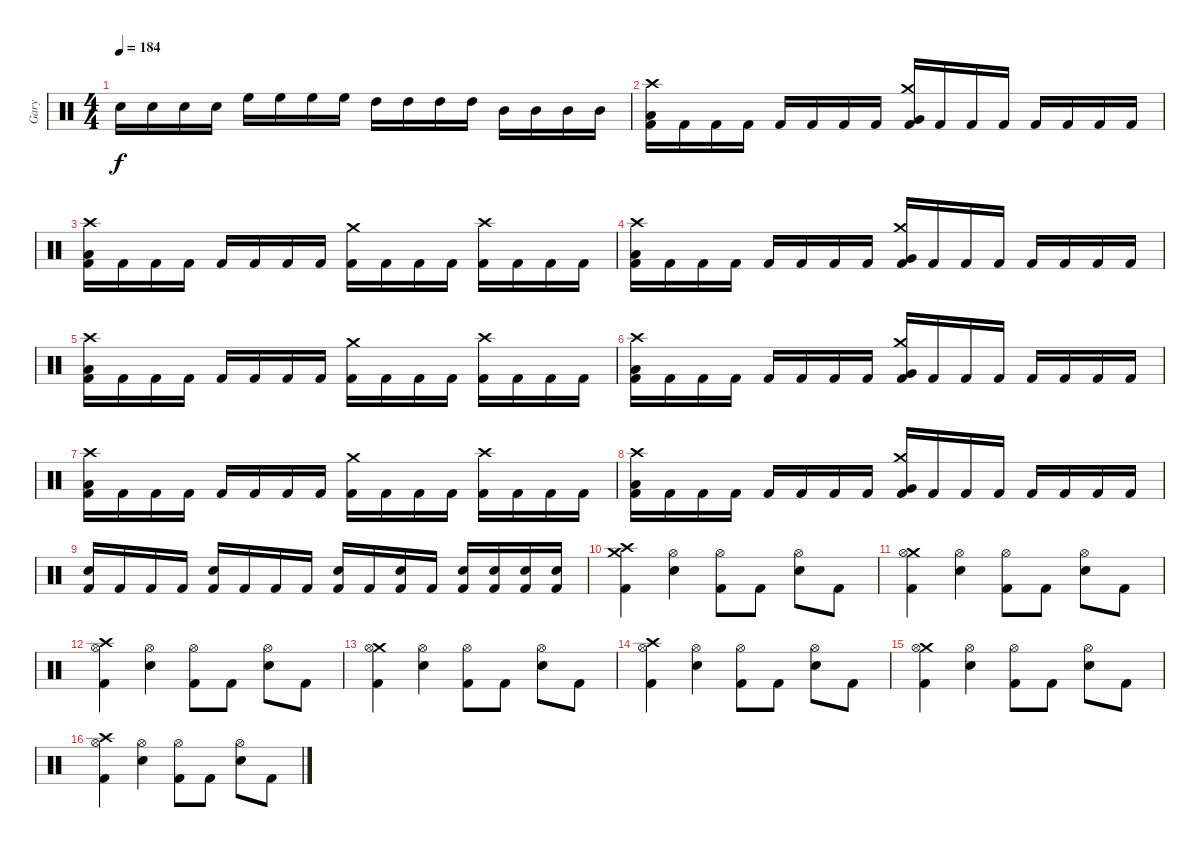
\track ("Gary" "Gary") {instrument percussion}
\staff {score}
\articulation defaults
\ts (4 4)
\tempo 184
\clef neutral
\ks c "Electric Snare (hit)".16{dy f} "Electric Snare (hit)".16 "Electric Snare (hit)".16 "Electric Snare (hit)".16 "High Floor Tom (hit)".16 "High Floor Tom (hit)".16 "High Floor Tom (hit)".16 "High Floor Tom (hit)".16 "High Tom (hit)".16 "High Tom (hit)".16 "High Tom (hit)".16 "High Tom (hit)".16 "Mid Tom (hit)".16 "Mid Tom (hit)".16 "Mid Tom (hit)".16 "Mid Tom (hit)".16
|
("Crash high (hit)" "Low Floor Tom (hit)" "Kick (hit) 2").16 "Kick (hit) 2".16 "Kick (hit) 2".16 "Kick (hit) 2".16 "Kick (hit) 2".16 "Kick (hit) 2".16 "Kick (hit) 2".16 "Kick (hit) 2".16 ("Crash medium (hit)" "Very Low Tom (hit)" "Kick (hit) 2").16 "Kick (hit) 2".16 "Kick (hit) 2".16 "Kick (hit) 2".16 "Kick (hit) 2".16 "Kick (hit) 2".16 "Kick (hit) 2".16 "Kick (hit) 2".16 |
("Crash high (hit)" "Low Floor Tom (hit)" "Kick (hit) 2").16 "Kick (hit) 2".16 "Kick (hit) 2".16 "Kick (hit) 2".16 "Kick (hit) 2".16 "Kick (hit) 2".16 "Kick (hit) 2".16 "Kick (hit) 2".16 ("Crash medium (hit)" "Kick (hit) 2").16 "Kick (hit) 2".16 "Kick (hit) 2".16 "Kick (hit) 2".16 ("Crash high (hit)" "Kick (hit) 2").16 "Kick (hit) 2".16 "Kick (hit) 2".16 "Kick (hit) 2".16 |
("Crash high (hit)" "Low Floor Tom (hit)" "Kick (hit) 2").16 "Kick (hit) 2".16 "Kick (hit) 2".16 "Kick (hit) 2".16 "Kick (hit) 2".16 "Kick (hit) 2".16 "Kick (hit) 2".16 "Kick (hit) 2".16 ("Crash medium (hit)" "Very Low Tom (hit)" "Kick (hit) 2").16 "Kick (hit) 2".16 "Kick (hit) 2".16 "Kick (hit) 2".16 "Kick (hit) 2".16 "Kick (hit) 2".16 "Kick (hit) 2".16 "Kick (hit) 2".16 |
("Crash high (hit)" "Low Floor Tom (hit)" "Kick (hit) 2").16 "Kick (hit) 2".16 "Kick (hit) 2".16 "Kick (hit) 2".16 "Kick (hit) 2".16 "Kick (hit) 2".16 "Kick (hit) 2".16 "Kick (hit) 2".16 ("Crash medium (hit)" "Kick (hit) 2").16 "Kick (hit) 2".16 "Kick (hit) 2".16 "Kick (hit) 2".16 ("Crash high (hit)" "Kick (hit) 2").16 "Kick (hit) 2".16 "Kick (hit) 2".16 "Kick (hit) 2".16 |
("Crash high (hit)" "Low Floor Tom (hit)" "Kick (hit) 2").16 "Kick (hit) 2".16 "Kick (hit) 2".16 "Kick (hit) 2".16 "Kick (hit) 2".16 "Kick (hit) 2".16 "Kick (hit) 2".16 "Kick (hit) 2".16 ("Crash medium (hit)" "Very Low Tom (hit)" "Kick (hit) 2").16 "Kick (hit) 2".16 "Kick (hit) 2".16 "Kick (hit) 2".16 "Kick (hit) 2".16 "Kick (hit) 2".16 "Kick (hit) 2".16 "Kick (hit) 2".16 |
("Crash high (hit)" "Low Floor Tom (hit)" "Kick (hit) 2").16 "Kick (hit) 2".16 "Kick (hit) 2".16 "Kick (hit) 2".16 "Kick (hit) 2".16 "Kick (hit) 2".16 "Kick (hit) 2".16 "Kick (hit) 2".16 ("Crash medium (hit)" "Kick (hit) 2").16 "Kick (hit) 2".16 "Kick (hit) 2".16 "Kick (hit) 2".16 ("Crash high (hit)" "Kick (hit) 2").16 "Kick (hit) 2".16 "Kick (hit) 2".16 "Kick (hit) 2".16 |
("Crash high (hit)" "Low Floor Tom (hit)" "Kick (hit) 2").16 "Kick (hit) 2".16 "Kick (hit) 2".16 "Kick (hit) 2".16 "Kick (hit) 2".16 "Kick (hit) 2".16 "Kick (hit) 2".16 "Kick (hit) 2".16 ("Crash medium (hit)" "Very Low Tom (hit)" "Kick (hit) 2").16 "Kick (hit) 2".16 "Kick (hit) 2".16 "Kick (hit) 2".16 "Kick (hit) 2".16 "Kick (hit) 2".16 "Kick (hit) 2".16 "Kick (hit) 2".16 |
("Snare (hit) 2" "Kick (hit) 2").16 "Kick (hit) 2".16 "Kick (hit) 2".16 "Kick (hit) 2".16 ("Snare (hit) 2" "Kick (hit) 2").16 "Kick (hit) 2".16 "Kick (hit) 2".16 "Kick (hit) 2".16 ("Snare (hit) 2" "Kick (hit) 2").16 "Kick (hit) 2".16 ("Snare (hit) 2" "Kick (hit) 2").16 "Kick (hit) 2".16 ("Snare (hit) 2" "Kick (hit) 2").16 ("Snare (hit) 2" "Kick (hit) 2").16 ("Snare (hit) 2" "Kick (hit) 2").16 ("Snare (hit) 2" "Kick (hit) 2").16 |
("Crash high (hit)" "Crash medium (hit)" "Kick (hit) 2").4 ("Hi-Hat (open)" "Snare (hit) 2").4 ("Hi-Hat (open)" "Kick (hit) 2").8 "Kick (hit) 2".8 ("Hi-Hat (open)" "Snare (hit) 2").8 "Kick (hit) 2".8 |
("Crash medium (hit)" "Hi-Hat (open)" "Kick (hit) 2").4 ("Hi-Hat (open)" "Snare (hit) 2").4 ("Hi-Hat (open)" "Kick (hit) 2").8 "Kick (hit) 2".8 ("Hi-Hat (open)" "Snare (hit) 2").8 "Kick (hit) 2".8 |
("Crash high (hit)" "Hi-Hat (open)" "Kick (hit) 2").4 ("Hi-Hat (open)" "Snare (hit) 2").4 ("Hi-Hat (open)" "Kick (hit) 2").8 "Kick (hit) 2".8 ("Hi-Hat (open)" "Snare (hit) 2").8 "Kick (hit) 2".8 |
("Crash medium (hit)" "Hi-Hat (open)" "Kick (hit) 2").4 ("Hi-Hat (open)" "Snare (hit) 2").4 ("Hi-Hat (open)" "Kick (hit) 2").8 "Kick (hit) 2".8 ("Hi-Hat (open)" "Snare (hit) 2").8 "Kick (hit) 2".8 |
("Crash high (hit)" "Hi-Hat (open)" "Kick (hit) 2").4 ("Hi-Hat (open)" "Snare (hit) 2").4 ("Hi-Hat (open)" "Kick (hit) 2").8 "Kick (hit) 2".8 ("Hi-Hat (open)" "Snare (hit) 2").8 "Kick (hit) 2".8 |
("Crash medium (hit)" "Hi-Hat (open)" "Kick (hit) 2").4 ("Hi-Hat (open)" "Snare (hit) 2").4 ("Hi-Hat (open)" "Kick (hit) 2").8 "Kick (hit) 2".8 ("Hi-Hat (open)" "Snare (hit) 2").8 "Kick (hit) 2".8 |
("Crash high (hit)" "Hi-Hat (open)" "Kick (hit) 2").4 ("Hi-Hat (open)" "Snare (hit) 2").4 ("Hi-Hat (open)" "Kick (hit) 2").8 "Kick (hit) 2".8 ("Hi-Hat (open)" "Snare (hit) 2").8 "Kick (hit) 2".8
